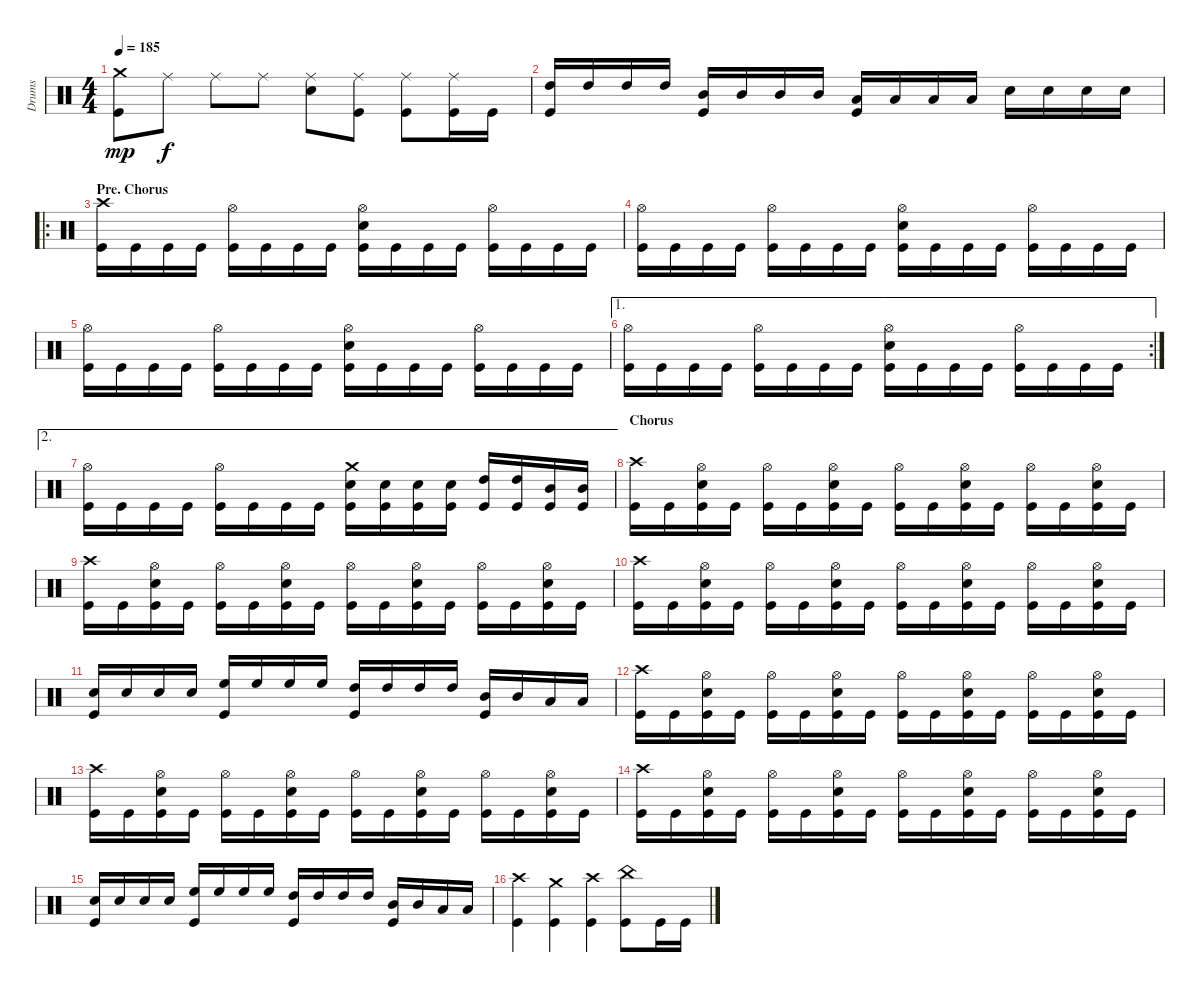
\track ("Drums" "Drums") {instrument percussion}
\staff {score}
\articulation defaults
\ts (4 4)
\tempo 185
\clef neutral
\ks c
("Crash medium (hit)" "Kick (hit)").8{dy mp} "Ride (middle)".8{dy f} "Ride (middle)".8 "Ride (middle)".8 ("Ride (middle)" "Electric Snare (hit)").8 ("Ride (middle)" "Kick (hit)").8 ("Ride (middle)" "Kick (hit)").8 ("Ride (middle)" "Kick (hit)").16 "Kick (hit)".16 |
("High Tom (hit)" "Kick (hit)").16 "High Tom (hit)".16 "High Tom (hit)".16 "High Tom (hit)".16 ("Mid Tom (hit)" "Kick (hit)").16 "Mid Tom (hit)".16 "Mid Tom (hit)".16 "Mid Tom (hit)".16 ("Low Tom (hit)" "Kick (hit)").16 "Low Tom (hit)".16 "Low Tom (hit)".16 "Low Tom (hit)".16 "Electric Snare (hit)".16 "Electric Snare (hit)".16 "Electric Snare (hit)".16 "Electric Snare (hit)".16 |
\ro
\section ("" "Pre. Chorus")
("Crash high (hit)" "Kick (hit)").16 "Kick (hit)".16 "Kick (hit)".16 "Kick (hit)".16 ("Hi-Hat (open)" "Kick (hit)").16 "Kick (hit)".16 "Kick (hit)".16 "Kick (hit)".16 ("Hi-Hat (open)" "Electric Snare (hit)" "Kick (hit)").16 "Kick (hit)".16 "Kick (hit)".16 "Kick (hit)".16 ("Hi-Hat (open)" "Kick (hit)").16 "Kick (hit)".16 "Kick (hit)".16 "Kick (hit)".16 |
("Hi-Hat (open)" "Kick (hit)").16 "Kick (hit)".16 "Kick (hit)".16 "Kick (hit)".16 ("Hi-Hat (open)" "Kick (hit)").16 "Kick (hit)".16 "Kick (hit)".16 "Kick (hit)".16 ("Hi-Hat (open)" "Electric Snare (hit)" "Kick (hit)").16 "Kick (hit)".16 "Kick (hit)".16 "Kick (hit)".16 ("Hi-Hat (open)" "Kick (hit)").16 "Kick (hit)".16 "Kick (hit)".16 "Kick (hit)".16 |
("Hi-Hat (open)" "Kick (hit)").16 "Kick (hit)".16 "Kick (hit)".16 "Kick (hit)".16 ("Hi-Hat (open)" "Kick (hit)").16 "Kick (hit)".16 "Kick (hit)".16 "Kick (hit)".16 ("Hi-Hat (open)" "Electric Snare (hit)" "Kick (hit)").16 "Kick (hit)".16 "Kick (hit)".16 "Kick (hit)".16 ("Hi-Hat (open)" "Kick (hit)").16 "Kick (hit)".16 "Kick (hit)".16 "Kick (hit)".16 |
\ae 1
\rc 2
("Hi-Hat (open)" "Kick (hit)").16 "Kick (hit)".16 "Kick (hit)".16 "Kick (hit)".16 ("Hi-Hat (open)" "Kick (hit)").16 "Kick (hit)".16 "Kick (hit)".16 "Kick (hit)".16 ("Hi-Hat (open)" "Electric Snare (hit)" "Kick (hit)").16 "Kick (hit)".16 "Kick (hit)".16 "Kick (hit)".16 ("Hi-Hat (open)" "Kick (hit)").16 "Kick (hit)".16 "Kick (hit)".16 "Kick (hit)".16 |
\ae 2
("Hi-Hat (open)" "Kick (hit)").16 "Kick (hit)".16 "Kick (hit)".16 "Kick (hit)".16 ("Hi-Hat (open)" "Kick (hit)").16 "Kick (hit)".16 "Kick (hit)".16 "Kick (hit)".16 ("Crash medium (hit)" "Electric Snare (hit)" "Kick (hit)").16 ("Electric Snare (hit)" "Kick (hit)").16 ("Electric Snare (hit)" "Kick (hit)").16 ("Electric Snare (hit)" "Kick (hit)").16 ("High Tom (hit)" "Kick (hit)").16 ("High Tom (hit)" "Kick (hit)").16 ("Mid Tom (hit)" "Kick (hit)").16 ("Mid Tom (hit)" "Kick (hit)").16 |
\section ("" "Chorus")
("Crash high (hit)" "Kick (hit)").16 "Kick (hit)".16 ("Hi-Hat (open)" "Electric Snare (hit)" "Kick (hit)").16 "Kick (hit)".16 ("Hi-Hat (open)" "Kick (hit)").16 "Kick (hit)".16 ("Hi-Hat (open)" "Electric Snare (hit)" "Kick (hit)").16 "Kick (hit)".16 ("Hi-Hat (open)" "Kick (hit)").16 "Kick (hit)".16 ("Hi-Hat (open)" "Electric Snare (hit)" "Kick (hit)").16 "Kick (hit)".16 ("Hi-Hat (open)" "Kick (hit)").16 "Kick (hit)".16 ("Hi-Hat (open)" "Electric Snare (hit)" "Kick (hit)").16 "Kick (hit)".16 |
("Crash high (hit)" "Kick (hit)").16 "Kick (hit)".16 ("Hi-Hat (open)" "Electric Snare (hit)" "Kick (hit)").16 "Kick (hit)".16 ("Hi-Hat (open)" "Kick (hit)").16 "Kick (hit)".16 ("Hi-Hat (open)" "Electric Snare (hit)" "Kick (hit)").16 "Kick (hit)".16 ("Hi-Hat (open)" "Kick (hit)").16 "Kick (hit)".16 ("Hi-Hat (open)" "Electric Snare (hit)" "Kick (hit)").16 "Kick (hit)".16 ("Hi-Hat (open)" "Kick (hit)").16 "Kick (hit)".16 ("Hi-Hat (open)" "Electric Snare (hit)" "Kick (hit)").16 "Kick (hit)".16 |
("Crash high (hit)" "Kick (hit)").16 "Kick (hit)".16 ("Hi-Hat (open)" "Electric Snare (hit)" "Kick (hit)").16 "Kick (hit)".16 ("Hi-Hat (open)" "Kick (hit)").16 "Kick (hit)".16 ("Hi-Hat (open)" "Electric Snare (hit)" "Kick (hit)").16 "Kick (hit)".16 ("Hi-Hat (open)" "Kick (hit)").16 "Kick (hit)".16 ("Hi-Hat (open)" "Electric Snare (hit)" "Kick (hit)").16 "Kick (hit)".16 ("Hi-Hat (open)" "Kick (hit)").16 "Kick (hit)".16 ("Hi-Hat (open)" "Electric Snare (hit)" "Kick (hit)").16 "Kick (hit)".16 |
("Electric Snare (hit)" "Kick (hit)").16 "Electric Snare (hit)".16 "Electric Snare (hit)".16 "Electric Snare (hit)".16 ("High Floor Tom (hit)" "Kick (hit)").16 "High Floor Tom (hit)".16 "High Floor Tom (hit)".16 "High Floor Tom (hit)".16 ("High Tom (hit)" "Kick (hit)").16 "High Tom (hit)".16 "High Tom (hit)".16 "High Tom (hit)".16 ("Mid Tom (hit)" "Kick (hit)").16 "Mid Tom (hit)".16 "Low Tom (hit)".16 "Low Tom (hit)".16 |
("Crash high (hit)" "Kick (hit)").16 "Kick (hit)".16 ("Hi-Hat (open)" "Electric Snare (hit)" "Kick (hit)").16 "Kick (hit)".16 ("Hi-Hat (open)" "Kick (hit)").16 "Kick (hit)".16 ("Hi-Hat (open)" "Electric Snare (hit)" "Kick (hit)").16 "Kick (hit)".16 ("Hi-Hat (open)" "Kick (hit)").16 "Kick (hit)".16 ("Hi-Hat (open)" "Electric Snare (hit)" "Kick (hit)").16 "Kick (hit)".16 ("Hi-Hat (open)" "Kick (hit)").16 "Kick (hit)".16 ("Hi-Hat (open)" "Electric Snare (hit)" "Kick (hit)").16 "Kick (hit)".16 |
("Crash high (hit)" "Kick (hit)").16 "Kick (hit)".16 ("Hi-Hat (open)" "Electric Snare (hit)" "Kick (hit)").16 "Kick (hit)".16 ("Hi-Hat (open)" "Kick (hit)").16 "Kick (hit)".16 ("Hi-Hat (open)" "Electric Snare (hit)" "Kick (hit)").16 "Kick (hit)".16 ("Hi-Hat (open)" "Kick (hit)").16 "Kick (hit)".16 ("Hi-Hat (open)" "Electric Snare (hit)" "Kick (hit)").16 "Kick (hit)".16 ("Hi-Hat (open)" "Kick (hit)").16 "Kick (hit)".16 ("Hi-Hat (open)" "Electric Snare (hit)" "Kick (hit)").16 "Kick (hit)".16 |
("Crash high (hit)" "Kick (hit)").16 "Kick (hit)".16 ("Hi-Hat (open)" "Electric Snare (hit)" "Kick (hit)").16 "Kick (hit)".16 ("Hi-Hat (open)" "Kick (hit)").16 "Kick (hit)".16 ("Hi-Hat (open)" "Electric Snare (hit)" "Kick (hit)").16 "Kick (hit)".16 ("Hi-Hat (open)" "Kick (hit)").16 "Kick (hit)".16 ("Hi-Hat (open)" "Electric Snare (hit)" "Kick (hit)").16 "Kick (hit)".16 ("Hi-Hat (open)" "Kick (hit)").16 "Kick (hit)".16 ("Hi-Hat (open)" "Electric Snare (hit)" "Kick (hit)").16 "Kick (hit)".16 |
("Electric Snare (hit)" "Kick (hit)").16 "Electric Snare (hit)".16 "Electric Snare (hit)".16 "Electric Snare (hit)".16 ("High Floor Tom (hit)" "Kick (hit)").16 "High Floor Tom (hit)".16 "High Floor Tom (hit)".16 "High Floor Tom (hit)".16 ("High Tom (hit)" "Kick (hit)").16 "High Tom (hit)".16 "High Tom (hit)".16 "High Tom (hit)".16 ("Mid Tom (hit)" "Kick (hit)").16 "Mid Tom (hit)".16 "Low Tom (hit)".16 "Low Tom (hit)".16 |
("Crash high (hit)" "Kick (hit)").4 ("Crash medium (hit)" "Kick (hit)").4 ("Crash high (hit)" "Kick (hit)").4 ("China (hit)" "Kick (hit)").8 "Kick (hit)".16 "Kick (hit)".16
